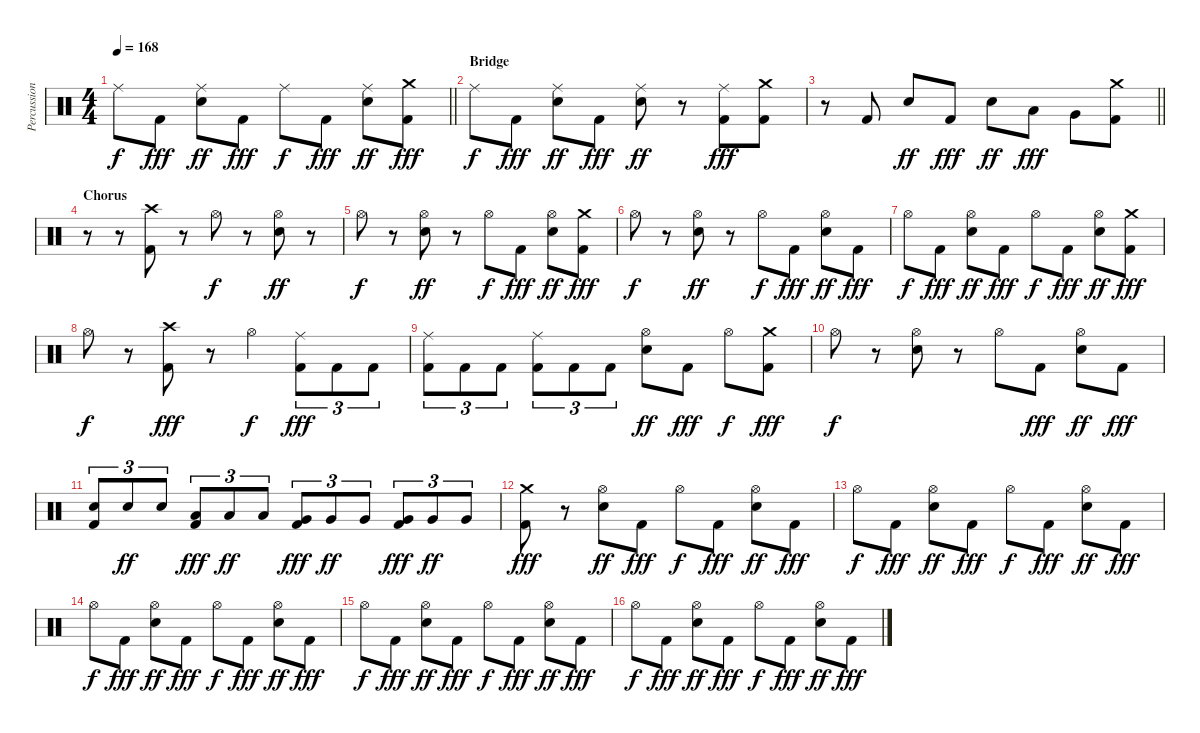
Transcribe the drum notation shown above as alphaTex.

\track ("Percussion" "Percussion") {instrument percussion}
\staff {score}
\articulation defaults
\ts (4 4)
\tempo 168
\clef neutral
\barLineRight lightlight
\ks c "Ride (middle)".8{dy f} "Kick (hit) 2".8{dy fff}
("Ride (middle)" "Electric Snare (hit)").8{dy ff} "Kick (hit) 2".8{dy fff} "Ride (middle)".8{dy f} "Kick (hit) 2".8{dy fff} ("Ride (middle)" "Electric Snare (hit)").8{dy ff} ("Crash medium (hit)" "Kick (hit) 2").8{dy fff} |
\section ("" "Bridge")
"Ride (middle)".8{dy f} "Kick (hit) 2".8{dy fff} ("Ride (middle)" "Electric Snare (hit)").8{dy ff} "Kick (hit) 2".8{dy fff} ("Ride (middle)" "Electric Snare (hit)").8{dy ff} r.8 ("Ride (middle)" "Kick (hit) 2").8{dy fff} ("Crash medium (hit)" "Kick (hit) 2").8 |
\barLineRight lightlight
r.8 "Kick (hit) 2".8 "Electric Snare (hit)".8{dy ff} "Kick (hit) 2".8{dy fff} "Electric Snare (hit)".8{dy ff} "Low Tom (hit)".8{dy fff} "Very Low Tom (hit)".8 ("Crash medium (hit)" "Kick (hit) 2").8 |
\section ("" "Chorus")
r.8 r.8 ("Crash high (hit)" "Kick (hit) 2").8 r.8 "Hi-Hat (open)".8{dy f} r.8 ("Hi-Hat (open)" "Electric Snare (hit)").8{dy ff} r.8 |
"Hi-Hat (open)".8{dy f} r.8 ("Hi-Hat (open)" "Electric Snare (hit)").8{dy ff} r.8 "Hi-Hat (open)".8{dy f} "Kick (hit) 2".8{dy fff} ("Hi-Hat (open)" "Electric Snare (hit)").8{dy ff} ("Crash medium (hit)" "Kick (hit) 2").8{dy fff} |
"Hi-Hat (open)".8{dy f} r.8 ("Hi-Hat (open)" "Electric Snare (hit)").8{dy ff} r.8 "Hi-Hat (open)".8{dy f} "Kick (hit) 2".8{dy fff} ("Hi-Hat (open)" "Electric Snare (hit)").8{dy ff} "Kick (hit) 2".8{dy fff} |
"Hi-Hat (open)".8{dy f} "Kick (hit) 2".8{dy fff} ("Hi-Hat (open)" "Electric Snare (hit)").8{dy ff} "Kick (hit) 2".8{dy fff} "Hi-Hat (open)".8{dy f} "Kick (hit) 2".8{dy fff} ("Hi-Hat (open)" "Electric Snare (hit)").8{dy ff} ("Crash medium (hit)" "Kick (hit) 2").8{dy fff} |
"Hi-Hat (open)".8{dy f} r.8 ("Crash high (hit)" "Kick (hit) 2").8{dy fff} r.8 "Hi-Hat (open)".4{dy f} ("Ride (middle)" "Kick (hit) 2").8{tu (3 2) dy fff} "Kick (hit) 2".8{tu (3 2)} "Kick (hit) 2".8{tu (3 2)} |
("Ride (middle)" "Kick (hit) 2").8{tu (3 2)} "Kick (hit) 2".8{tu (3 2)} "Kick (hit) 2".8{tu (3 2)} ("Ride (middle)" "Kick (hit) 2").8{tu (3 2)} "Kick (hit) 2".8{tu (3 2)} "Kick (hit) 2".8{tu (3 2)} ("Hi-Hat (open)" "Electric Snare (hit)").8{dy ff} "Kick (hit) 2".8{dy fff} "Hi-Hat (open)".8{dy f} ("Crash medium (hit)" "Kick (hit) 2").8{dy fff} |
"Hi-Hat (open)".8{dy f} r.8 ("Hi-Hat (open)" "Electric Snare (hit)").8 r.8 "Hi-Hat (open)".8 "Kick (hit) 2".8{dy fff} ("Hi-Hat (open)" "Electric Snare (hit)").8{dy ff} "Kick (hit) 2".8{dy fff} |
("Electric Snare (hit)" "Kick (hit) 2").8{tu (3 2)} "Electric Snare (hit)".8{tu (3 2) dy ff} "Electric Snare (hit)".8{tu (3 2)} ("Low Tom (hit)" "Kick (hit) 2").8{tu (3 2) dy fff} "Low Tom (hit)".8{tu (3 2) dy ff} "Low Tom (hit)".8{tu (3 2)} ("Very Low Tom (hit)" "Kick (hit) 2").8{tu (3 2) dy fff} "Very Low Tom (hit)".8{tu (3 2) dy ff} "Very Low Tom (hit)".8{tu (3 2)} ("Very Low Tom (hit)" "Kick (hit) 2").8{tu (3 2) dy fff} "Very Low Tom (hit)".8{tu (3 2) dy ff} "Very Low Tom (hit)".8{tu (3 2)} |
("Crash medium (hit)" "Kick (hit) 2").8{dy fff} r.8 ("Hi-Hat (open)" "Electric Snare (hit)").8{dy ff} "Kick (hit) 2".8{dy fff} "Hi-Hat (open)".8{dy f} "Kick (hit) 2".8{dy fff} ("Hi-Hat (open)" "Electric Snare (hit)").8{dy ff} "Kick (hit) 2".8{dy fff} |
"Hi-Hat (open)".8{dy f} "Kick (hit) 2".8{dy fff} ("Hi-Hat (open)" "Electric Snare (hit)").8{dy ff} "Kick (hit) 2".8{dy fff} "Hi-Hat (open)".8{dy f} "Kick (hit) 2".8{dy fff} ("Hi-Hat (open)" "Electric Snare (hit)").8{dy ff} "Kick (hit) 2".8{dy fff} |
"Hi-Hat (open)".8{dy f} "Kick (hit) 2".8{dy fff} ("Hi-Hat (open)" "Electric Snare (hit)").8{dy ff} "Kick (hit) 2".8{dy fff} "Hi-Hat (open)".8{dy f} "Kick (hit) 2".8{dy fff} ("Hi-Hat (open)" "Electric Snare (hit)").8{dy ff} "Kick (hit) 2".8{dy fff} |
"Hi-Hat (open)".8{dy f} "Kick (hit) 2".8{dy fff} ("Hi-Hat (open)" "Electric Snare (hit)").8{dy ff} "Kick (hit) 2".8{dy fff} "Hi-Hat (open)".8{dy f} "Kick (hit) 2".8{dy fff} ("Hi-Hat (open)" "Electric Snare (hit)").8{dy ff} "Kick (hit) 2".8{dy fff} |
"Hi-Hat (open)".8{dy f} "Kick (hit) 2".8{dy fff} ("Hi-Hat (open)" "Electric Snare (hit)").8{dy ff} "Kick (hit) 2".8{dy fff} "Hi-Hat (open)".8{dy f} "Kick (hit) 2".8{dy fff} ("Hi-Hat (open)" "Electric Snare (hit)").8{dy ff} "Kick (hit) 2".8{dy fff}
